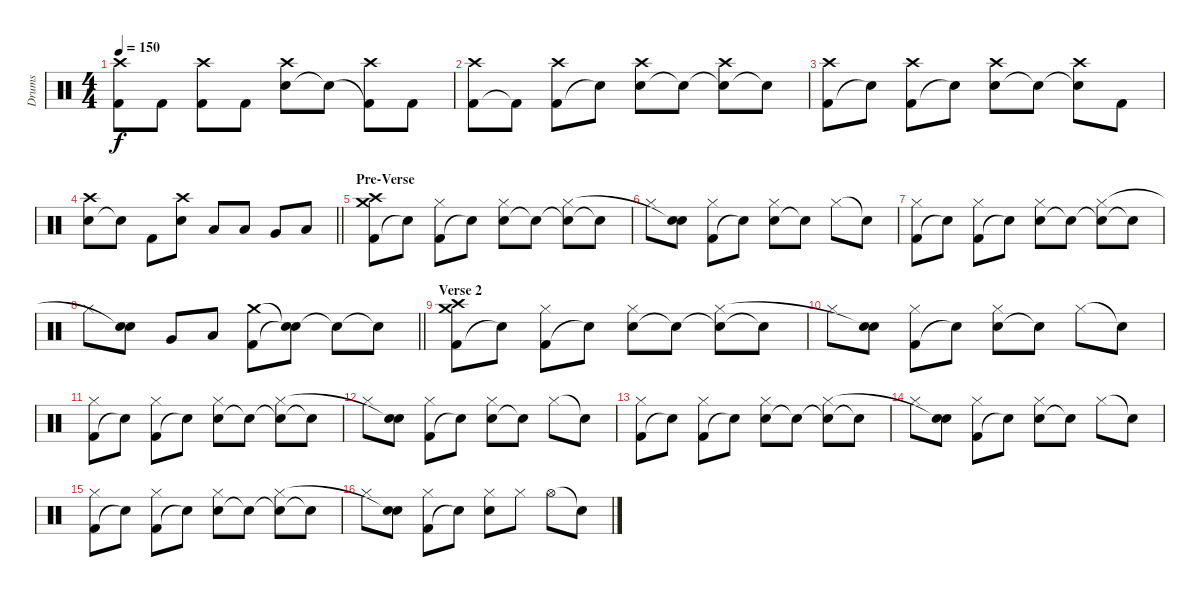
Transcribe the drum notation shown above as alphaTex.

\track ("Drums" "Drums") {instrument percussion}
\staff {score}
\articulation defaults
\ts (4 4)
\tempo 150
\clef neutral
\ks c
("Kick (hit) 2" "Crash high (hit)").8{dy f} "Kick (hit) 2".8 ("Kick (hit) 2" "Crash high (hit)").8 "Kick (hit) 2".8 ("Electric Snare (hit)" "Crash high (hit)").8 "Snare (hit)"{t}.8 ("Kick (hit) 2"{t} "Crash high (hit)").8 "Kick (hit) 2".8 |
("Kick (hit) 2" "Crash high (hit)").8 "Kick (hit) 2"{t}.8 ("Kick (hit) 2" "Crash high (hit)").8 "Electric Snare (hit)"{t}.8 ("Electric Snare (hit)" "Crash high (hit)").8 "Snare (hit)"{t}.8 ("Snare (hit)"{t} "Crash high (hit)").8 "Snare (hit)"{t}.8 |
("Kick (hit) 2" "Crash high (hit)").8 "Snare (hit)"{t}.8 ("Kick (hit) 2" "Crash high (hit)").8 "Snare (hit)"{t}.8 ("Electric Snare (hit)" "Crash high (hit)").8 "Snare (hit)"{t}.8 ("Snare (hit)"{t} "Crash high (hit)").8 "Kick (hit) 2".8 |
\barLineRight lightlight
("Electric Snare (hit)" "Crash high (hit)").8 "Snare (hit)"{t}.8 "Kick (hit) 2".8 ("Electric Snare (hit)" "Crash high (hit)").8 "Low Tom (hit)".8 "Low Tom (hit)".8 "Very Low Tom (hit)".8 "Low Floor Tom (hit)".8 |
\section ("" "Pre-Verse")
("Kick (hit) 2" "Crash medium (hit)" "Crash high (hit)").8 "Snare (hit)"{t}.8 ("Kick (hit) 2" "Hi-Hat (closed)").8 "Snare (hit)"{t}.8 ("Electric Snare (hit)" "Hi-Hat (closed)").8 "Snare (hit)"{t}.8 ("Snare (hit)"{t} "Hi-Hat (closed)").8 "Snare (hit)"{t}.8 |
"Hi-Hat (closed)".8 ("Electric Snare (hit)" "Snare (hit)"{t}).8 ("Kick (hit) 2" "Hi-Hat (closed)").8 "Snare (hit)"{t}.8 ("Electric Snare (hit)" "Hi-Hat (closed)").8 "Snare (hit)"{t}.8 "Hi-Hat (closed)".8 "Snare (hit)"{t}.8 |
("Kick (hit) 2" "Hi-Hat (closed)").8 "Snare (hit)"{t}.8 ("Kick (hit) 2" "Hi-Hat (closed)").8 "Snare (hit)"{t}.8 ("Electric Snare (hit)" "Hi-Hat (closed)").8 "Snare (hit)"{t}.8 ("Snare (hit)"{t} "Hi-Hat (closed)").8 "Snare (hit)"{t}.8 |
\barLineRight lightlight "Hi-Hat (closed)".8
("Electric Snare (hit)" "Snare (hit)"{t}).8 "Very Low Tom (hit)".8 "Low Floor Tom (hit)".8 ("Kick (hit) 2" "Crash medium (hit)").8 ("Snare (hit)"{t} "Snare (hit)"{t}).8 "Snare (hit)"{t}.8 "Snare (hit)"{t}.8 |
\section ("" "Verse 2")
("Kick (hit) 2" "Crash medium (hit)" "Crash high (hit)").8 "Snare (hit)"{t}.8 ("Kick (hit) 2" "Hi-Hat (closed)").8 "Snare (hit)"{t}.8 ("Electric Snare (hit)" "Hi-Hat (closed)").8 "Snare (hit)"{t}.8 ("Snare (hit)"{t} "Hi-Hat (closed)").8 "Snare (hit)"{t}.8 |
"Hi-Hat (closed)".8 ("Electric Snare (hit)" "Snare (hit)"{t}).8 ("Kick (hit) 2" "Hi-Hat (closed)").8 "Snare (hit)"{t}.8 ("Electric Snare (hit)" "Hi-Hat (closed)").8 "Snare (hit)"{t}.8 "Hi-Hat (closed)".8 "Snare (hit)"{t}.8 |
("Kick (hit) 2" "Hi-Hat (closed)").8 "Snare (hit)"{t}.8 ("Kick (hit) 2" "Hi-Hat (closed)").8 "Snare (hit)"{t}.8 ("Electric Snare (hit)" "Hi-Hat (closed)").8 "Snare (hit)"{t}.8 ("Snare (hit)"{t} "Hi-Hat (closed)").8 "Snare (hit)"{t}.8 |
"Hi-Hat (closed)".8 ("Electric Snare (hit)" "Snare (hit)"{t}).8 ("Kick (hit) 2" "Hi-Hat (closed)").8 "Snare (hit)"{t}.8 ("Electric Snare (hit)" "Hi-Hat (closed)").8 "Snare (hit)"{t}.8 "Hi-Hat (closed)".8 "Snare (hit)"{t}.8 |
("Kick (hit) 2" "Hi-Hat (closed)").8 "Snare (hit)"{t}.8 ("Kick (hit) 2" "Hi-Hat (closed)").8 "Snare (hit)"{t}.8 ("Electric Snare (hit)" "Hi-Hat (closed)").8 "Snare (hit)"{t}.8 ("Snare (hit)"{t} "Hi-Hat (closed)").8 "Snare (hit)"{t}.8 |
"Hi-Hat (closed)".8 ("Electric Snare (hit)" "Snare (hit)"{t}).8 ("Kick (hit) 2" "Hi-Hat (closed)").8 "Snare (hit)"{t}.8 ("Electric Snare (hit)" "Hi-Hat (closed)").8 "Snare (hit)"{t}.8 "Hi-Hat (closed)".8 "Snare (hit)"{t}.8 |
("Kick (hit) 2" "Hi-Hat (closed)").8 "Snare (hit)"{t}.8 ("Kick (hit) 2" "Hi-Hat (closed)").8 "Snare (hit)"{t}.8 ("Electric Snare (hit)" "Hi-Hat (closed)").8 "Snare (hit)"{t}.8 ("Snare (hit)"{t} "Hi-Hat (closed)").8 "Snare (hit)"{t}.8 |
"Hi-Hat (closed)".8 ("Electric Snare (hit)" "Snare (hit)"{t}).8 ("Kick (hit) 2" "Hi-Hat (closed)").8 "Snare (hit)"{t}.8 ("Electric Snare (hit)" "Hi-Hat (closed)").8 "Hi-Hat (closed)".8 "Hi-Hat (open)".8 "Snare (hit)"{t}.8
